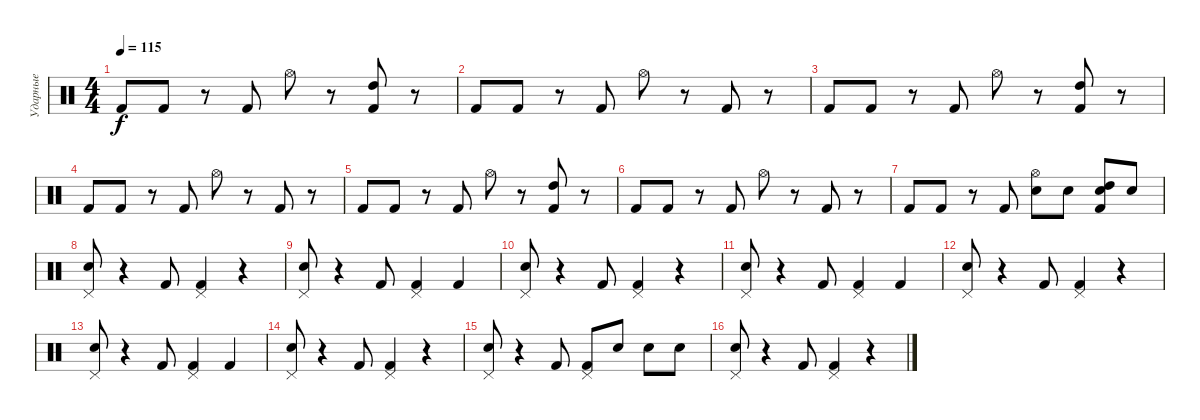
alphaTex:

\track ("Ударные" "Ударные") {instrument percussion}
\staff {score}
\articulation defaults
\ts (4 4)
\tempo 115
\clef neutral
\ks c "Kick (hit) 2".8{dy f} "Kick (hit) 2".8
r.8 "Kick (hit) 2".8 "Hi-Hat (open)".8 r.8 ("Kick (hit) 2" "High Tom (hit)").8 r.8 |
"Kick (hit) 2".8 "Kick (hit) 2".8 r.8 "Kick (hit) 2".8 "Hi-Hat (open)".8 r.8 "Kick (hit) 2".8 r.8 |
"Kick (hit) 2".8 "Kick (hit) 2".8 r.8 "Kick (hit) 2".8 "Hi-Hat (open)".8 r.8 ("Kick (hit) 2" "High Tom (hit)").8 r.8 |
"Kick (hit) 2".8 "Kick (hit) 2".8 r.8 "Kick (hit) 2".8 "Hi-Hat (open)".8 r.8 "Kick (hit) 2".8 r.8 |
"Kick (hit) 2".8 "Kick (hit) 2".8 r.8 "Kick (hit) 2".8 "Hi-Hat (open)".8 r.8 ("Kick (hit) 2" "High Tom (hit)").8 r.8 |
"Kick (hit) 2".8 "Kick (hit) 2".8 r.8 "Kick (hit) 2".8 "Hi-Hat (open)".8 r.8 "Kick (hit) 2".8 r.8 |
"Kick (hit) 2".8 "Kick (hit) 2".8 r.8 "Kick (hit) 2".8 ("Hi-Hat (open)" "Snare (hit) 2").8 "Snare (hit) 2".8 ("Kick (hit) 2" "Snare (hit) 2" "High Tom (hit)").8 "Snare (hit) 2".8 |
("Snare (hit) 2" "Pedal Hi-Hat (hit)").8 r.4 "Kick (hit) 2".8 ("Kick (hit) 2" "Pedal Hi-Hat (hit)").4 r.4 |
("Snare (hit) 2" "Pedal Hi-Hat (hit)").8 r.4 "Kick (hit) 2".8 ("Kick (hit) 2" "Pedal Hi-Hat (hit)").4 "Kick (hit) 2".4 |
("Snare (hit) 2" "Pedal Hi-Hat (hit)").8 r.4 "Kick (hit) 2".8 ("Kick (hit) 2" "Pedal Hi-Hat (hit)").4 r.4 |
("Snare (hit) 2" "Pedal Hi-Hat (hit)").8 r.4 "Kick (hit) 2".8 ("Kick (hit) 2" "Pedal Hi-Hat (hit)").4 "Kick (hit) 2".4 |
("Snare (hit) 2" "Pedal Hi-Hat (hit)").8 r.4 "Kick (hit) 2".8 ("Kick (hit) 2" "Pedal Hi-Hat (hit)").4 r.4 |
("Snare (hit) 2" "Pedal Hi-Hat (hit)").8 r.4 "Kick (hit) 2".8 ("Kick (hit) 2" "Pedal Hi-Hat (hit)").4 "Kick (hit) 2".4 |
("Snare (hit) 2" "Pedal Hi-Hat (hit)").8 r.4 "Kick (hit) 2".8 ("Kick (hit) 2" "Pedal Hi-Hat (hit)").4 r.4 |
("Snare (hit) 2" "Pedal Hi-Hat (hit)").8 r.4 "Kick (hit) 2".8 ("Kick (hit) 2" "Pedal Hi-Hat (hit)").8 "Snare (hit) 2".8 "Snare (hit) 2".8 "Snare (hit) 2".8 |
("Snare (hit) 2" "Pedal Hi-Hat (hit)").8 r.4 "Kick (hit) 2".8 ("Kick (hit) 2" "Pedal Hi-Hat (hit)").4 r.4
